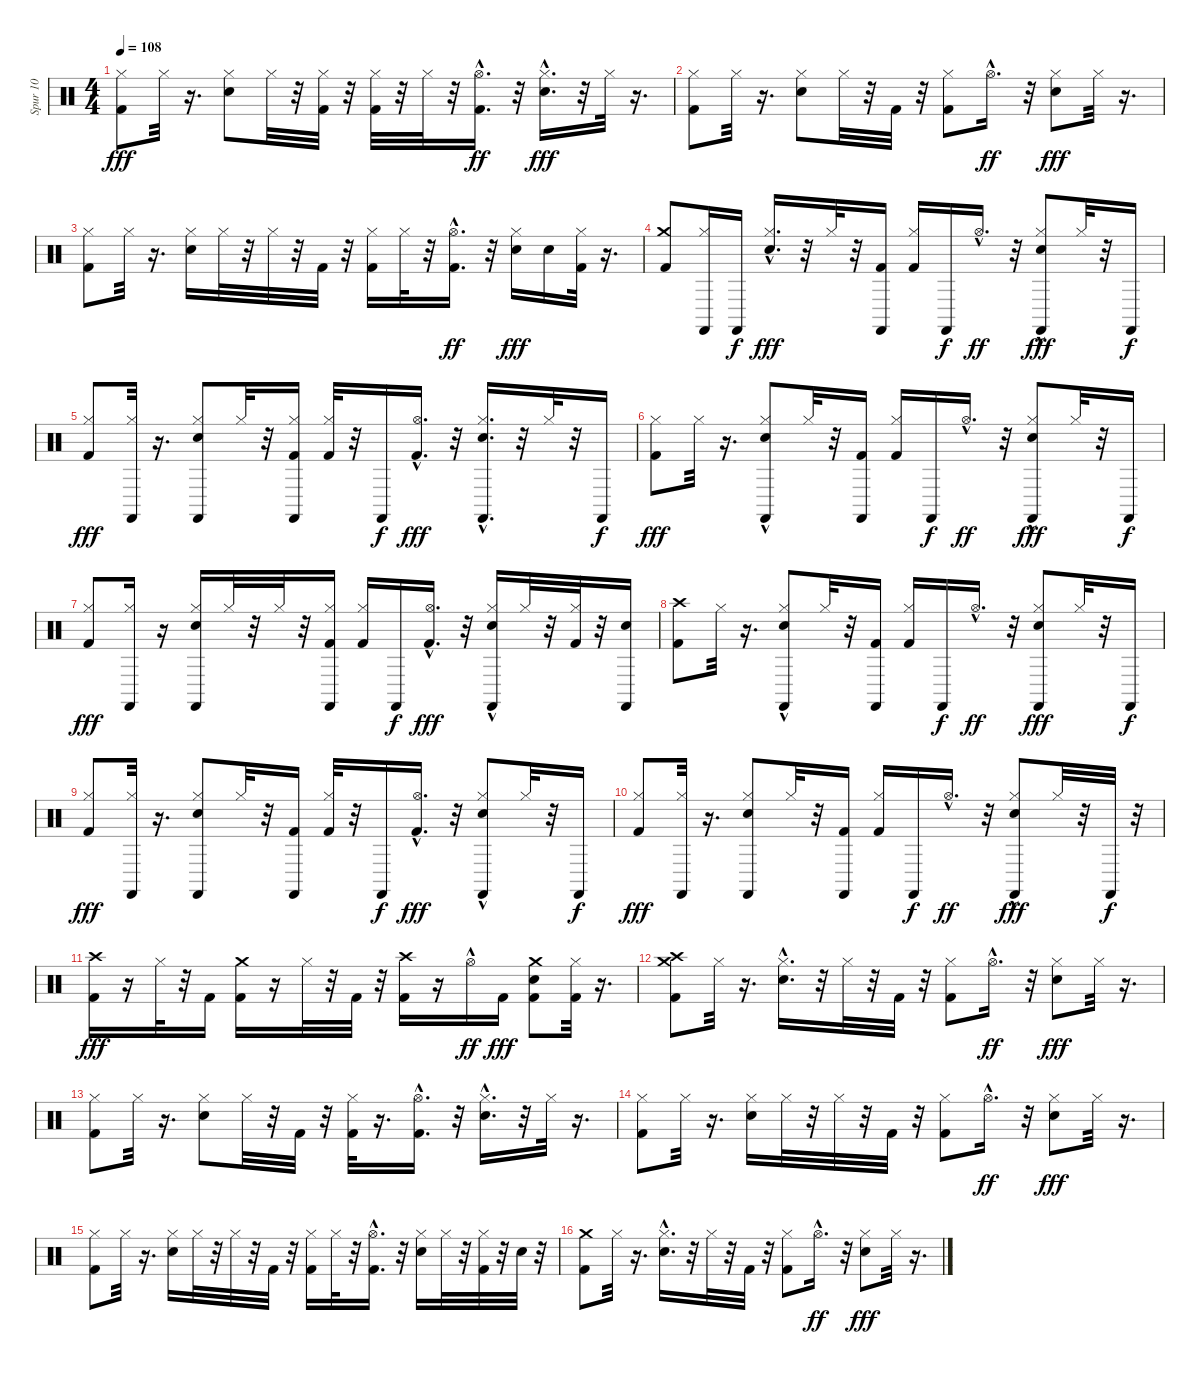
\track ("Spur 10" "Spur 10") {instrument percussion}
\staff {score}
\articulation defaults
\ts (4 4)
\tempo 108
\clef neutral
\ks c
("Kick (hit) 2" "Hi-Hat (closed)").8{dy fff} "Hi-Hat (closed)".32 r.16{d} ("Snare (hit) 2" "Hi-Hat (closed)").8 "Hi-Hat (closed)".32 r.32 ("Hi-Hat (closed)" "Kick (hit) 2").32 r.32 ("Kick (hit) 2" "Hi-Hat (closed)").32 r.32 "Hi-Hat (closed)".32 r.32 ("Kick (hit) 2" "Hi-Hat (open)"{hac}).16{d dy ff} r.32 ("Snare (hit) 2"{hac} "Hi-Hat (closed)").16{d dy fff} r.32 "Hi-Hat (closed)".32 r.16{d} |
("Kick (hit) 2" "Hi-Hat (closed)").8 "Hi-Hat (closed)".32 r.16{d} ("Snare (hit) 2" "Hi-Hat (closed)").8 "Hi-Hat (closed)".32 r.32 "Kick (hit) 2".32 r.32 ("Kick (hit) 2" "Hi-Hat (closed)").8 "Hi-Hat (open)"{hac}.16{d dy ff} r.32 ("Snare (hit) 2" "Hi-Hat (closed)").8{dy fff} "Hi-Hat (closed)".32 r.16{d} |
("Kick (hit) 2" "Hi-Hat (closed)").8 "Hi-Hat (closed)".32 r.16{d} ("Snare (hit) 2" "Hi-Hat (closed)").16 "Hi-Hat (closed)".32 r.32 "Hi-Hat (closed)".32 r.32 "Kick (hit) 2".32 r.32 ("Kick (hit) 2" "Hi-Hat (closed)").16 "Hi-Hat (closed)".32 r.32 ("Kick (hit) 2" "Hi-Hat (open)"{hac}).16{d dy ff} r.32 ("Electric Snare (hit)" "Hi-Hat (closed)").16{dy fff} "Electric Snare (hit)".16 ("Kick (hit) 2" "Hi-Hat (closed)").32 r.16{d} |
("Crash medium (hit)" "Kick (hit) 2").8 ("Hi-Hat (closed)" "Castanets (hit)").16 "Castanets (hit)".16{dy f} ("Hi-Hat (closed)" "Snare (hit) 2"{hac}).16{d dy fff} r.32 "Hi-Hat (closed)".32 r.32 ("Kick (hit) 2" "Castanets (hit)").16 ("Hi-Hat (closed)" "Kick (hit) 2").16 "Castanets (hit)".16{dy f} "Hi-Hat (open)"{hac}.16{d dy ff} r.32 ("Hi-Hat (closed)" "Snare (hit) 2" "Castanets (hit)"{hac}).8{dy fff} "Hi-Hat (closed)".32 r.32 "Castanets (hit)".16{dy f} |
("Hi-Hat (closed)" "Kick (hit) 2").8{dy fff} ("Hi-Hat (closed)" "Castanets (hit)").32 r.16{d} ("Hi-Hat (closed)" "Snare (hit) 2" "Castanets (hit)").8 "Hi-Hat (closed)".32 r.32 ("Hi-Hat (closed)" "Kick (hit) 2" "Castanets (hit)").16 ("Hi-Hat (closed)" "Kick (hit) 2").32 r.32 "Castanets (hit)".16{dy f} ("Hi-Hat (open)"{hac} "Kick (hit) 2").16{d dy fff} r.32 ("Hi-Hat (closed)" "Snare (hit) 2"{hac} "Castanets (hit)"{hac}).16{d} r.32 "Hi-Hat (closed)".32 r.32 "Castanets (hit)".16{dy f} |
("Hi-Hat (closed)" "Kick (hit) 2").8{dy fff} "Hi-Hat (closed)".32 r.16{d} ("Hi-Hat (closed)" "Snare (hit) 2" "Castanets (hit)"{hac}).8 "Hi-Hat (closed)".32 r.32 ("Kick (hit) 2" "Castanets (hit)").16 ("Hi-Hat (closed)" "Kick (hit) 2").16 "Castanets (hit)".16{dy f} "Hi-Hat (open)"{hac}.16{d dy ff} r.32 ("Hi-Hat (closed)" "Snare (hit) 2" "Castanets (hit)"{hac}).8{dy fff} "Hi-Hat (closed)".32 r.32 "Castanets (hit)".16{dy f} |
("Hi-Hat (closed)" "Kick (hit) 2").8{dy fff} ("Hi-Hat (closed)" "Castanets (hit)").16 r.16 ("Hi-Hat (closed)" "Snare (hit) 2" "Castanets (hit)").16 "Hi-Hat (closed)".32 r.32 "Hi-Hat (closed)".32 r.32 ("Hi-Hat (closed)" "Kick (hit) 2" "Castanets (hit)").16 ("Hi-Hat (closed)" "Kick (hit) 2").16 "Castanets (hit)".16{dy f} ("Hi-Hat (open)"{hac} "Kick (hit) 2").16{d dy fff} r.32 ("Hi-Hat (closed)" "Snare (hit) 2" "Castanets (hit)"{hac}).16 "Hi-Hat (closed)".32 r.32 ("Hi-Hat (closed)" "Kick (hit) 2").32 r.32 ("Snare (hit) 2" "Castanets (hit)").16 |
("Crash high (hit)" "Kick (hit) 2").8 "Hi-Hat (closed)".32 r.16{d} ("Castanets (hit)" "Hi-Hat (closed)" "Snare (hit) 2"{hac}).8 "Hi-Hat (closed)".32 r.32 ("Castanets (hit)" "Kick (hit) 2").16 ("Hi-Hat (closed)" "Kick (hit) 2").16 "Castanets (hit)".16{dy f} "Hi-Hat (open)"{hac}.16{d dy ff} r.32 ("Castanets (hit)" "Hi-Hat (closed)" "Snare (hit) 2").8{dy fff} "Hi-Hat (closed)".32 r.32 "Castanets (hit)".16{dy f} |
("Hi-Hat (closed)" "Kick (hit) 2").8{dy fff} ("Castanets (hit)" "Hi-Hat (closed)").32 r.16{d} ("Castanets (hit)" "Hi-Hat (closed)" "Snare (hit) 2").8 "Hi-Hat (closed)".32 r.32 ("Castanets (hit)" "Kick (hit) 2").16 ("Hi-Hat (closed)" "Kick (hit) 2").32 r.32 "Castanets (hit)".16{dy f} ("Hi-Hat (open)"{hac} "Kick (hit) 2").16{d dy fff} r.32 ("Castanets (hit)" "Hi-Hat (closed)" "Snare (hit) 2"{hac}).8 "Hi-Hat (closed)".32 r.32 "Castanets (hit)".16{dy f} |
("Hi-Hat (closed)" "Kick (hit) 2").8{dy fff} ("Castanets (hit)" "Hi-Hat (closed)").32 r.16{d} ("Castanets (hit)" "Hi-Hat (closed)" "Snare (hit) 2").8 "Hi-Hat (closed)".32 r.32 ("Castanets (hit)" "Kick (hit) 2").16 ("Hi-Hat (closed)" "Kick (hit) 2").16 "Castanets (hit)".16{dy f} "Hi-Hat (open)"{hac}.16{d dy ff} r.32 ("Castanets (hit)"{hac} "Hi-Hat (closed)" "Snare (hit) 2").8{dy fff} "Hi-Hat (closed)".32 r.32 "Castanets (hit)".32{dy f} r.32 |
("Crash high (hit)" "Kick (hit) 2").16{dy fff} r.16 "Hi-Hat (closed)".32 r.32 "Kick (hit) 2".16 ("Kick (hit) 2" "Crash medium (hit)").16 r.16 "Hi-Hat (closed)".32 r.32 "Kick (hit) 2".32 r.32 ("Crash high (hit)" "Kick (hit) 2").16 r.16 "Hi-Hat (open)"{hac}.16{dy ff} "Kick (hit) 2".16{dy fff} ("Snare (hit) 2" "Kick (hit) 2" "Crash medium (hit)").8 ("Hi-Hat (closed)" "Kick (hit) 2").32 r.16{d} |
("Crash medium (hit)" "Crash high (hit)" "Kick (hit) 2").8 "Hi-Hat (closed)".32 r.16{d} ("Hi-Hat (closed)" "Snare (hit) 2"{hac}).16{d} r.32 "Hi-Hat (closed)".32 r.32 "Kick (hit) 2".32 r.32 ("Hi-Hat (closed)" "Kick (hit) 2").8 "Hi-Hat (open)"{hac}.16{d dy ff} r.32 ("Hi-Hat (closed)" "Snare (hit) 2").8{dy fff} "Hi-Hat (closed)".32 r.16{d} |
("Hi-Hat (closed)" "Kick (hit) 2").8 "Hi-Hat (closed)".32 r.16{d} ("Hi-Hat (closed)" "Snare (hit) 2").8 "Hi-Hat (closed)".32 r.32 "Kick (hit) 2".32 r.32 ("Hi-Hat (closed)" "Kick (hit) 2").32 r.16{d} ("Hi-Hat (open)"{hac} "Kick (hit) 2").16{d} r.32 ("Hi-Hat (closed)" "Snare (hit) 2"{hac}).16{d} r.32 "Hi-Hat (closed)".32 r.16{d} |
("Hi-Hat (closed)" "Kick (hit) 2").8 "Hi-Hat (closed)".32 r.16{d} ("Hi-Hat (closed)" "Snare (hit) 2").16 "Hi-Hat (closed)".32 r.32 "Hi-Hat (closed)".32 r.32 "Kick (hit) 2".32 r.32 ("Hi-Hat (closed)" "Kick (hit) 2").8 "Hi-Hat (open)"{hac}.16{d dy ff} r.32 ("Hi-Hat (closed)" "Snare (hit) 2").8{dy fff} "Hi-Hat (closed)".32 r.16{d} |
("Hi-Hat (closed)" "Kick (hit) 2").8 "Hi-Hat (closed)".32 r.16{d} ("Hi-Hat (closed)" "Snare (hit) 2").16 "Hi-Hat (closed)".32 r.32 "Hi-Hat (closed)".32 r.32 "Kick (hit) 2".32 r.32 ("Hi-Hat (closed)" "Kick (hit) 2").16 "Hi-Hat (closed)".32 r.32 ("Hi-Hat (open)"{hac} "Kick (hit) 2").16{d} r.32 ("Hi-Hat (closed)" "Snare (hit) 2").16 "Hi-Hat (closed)".32 r.32 ("Hi-Hat (closed)" "Kick (hit) 2").32 r.32 "Electric Snare (hit)".32 r.32 |
("Kick (hit) 2" "Crash medium (hit)").8 "Hi-Hat (closed)".32 r.16{d} ("Snare (hit) 2"{hac} "Hi-Hat (closed)").16{d} r.32 "Hi-Hat (closed)".32 r.32 "Kick (hit) 2".32 r.32 ("Kick (hit) 2" "Hi-Hat (closed)").8 "Hi-Hat (open)"{hac}.16{d dy ff} r.32 ("Snare (hit) 2" "Hi-Hat (closed)").8{dy fff} "Hi-Hat (closed)".32 r.16{d}
